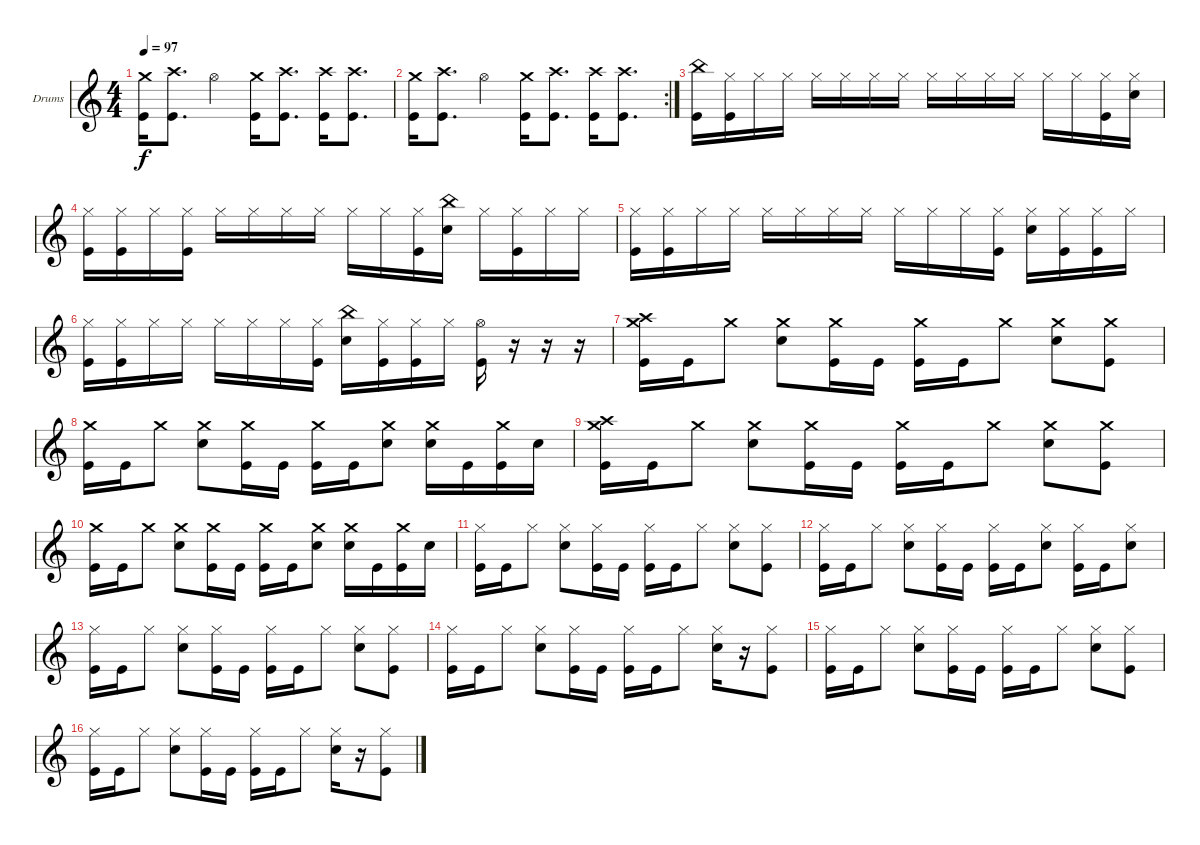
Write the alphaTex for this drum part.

\defaultSystemsLayout 4
\bracketExtendMode groupsimilarinstruments
\firstSystemTrackNameOrientation horizontal
\otherSystemsTrackNameOrientation horizontal
\track ("David Buckner" "Drums") {instrument percussion}
\staff {score}
\articulation defaults
\ts (4 4)
\tempo 97
\clef g2
\ks c
("Kick (hit)" "Crash medium (hit)").16{dy f} ("Kick (hit)" "Crash high (hit)").8{d} "Hi-Hat (open)".4 ("Kick (hit)" "Crash medium (hit)").16 ("Kick (hit)" "Crash high (hit)").8{d} ("Kick (hit)" "Crash high (hit)").16 ("Kick (hit)" "Crash high (hit)").8{d} |
\rc 2
("Kick (hit)" "Crash medium (hit)").16 ("Kick (hit)" "Crash high (hit)").8{d} "Hi-Hat (open)".4 ("Kick (hit)" "Crash medium (hit)").16 ("Kick (hit)" "Crash high (hit)").8{d} ("Kick (hit)" "Crash high (hit)").16 ("Kick (hit)" "Crash high (hit)").8{d} |
("Kick (hit)" "China (hit)").16 ("Hi-Hat (closed)" "Kick (hit)").16 "Hi-Hat (closed)".16 "Hi-Hat (closed)".16 "Hi-Hat (closed)".16 "Hi-Hat (closed)".16 "Hi-Hat (closed)".16 "Hi-Hat (closed)".16 "Hi-Hat (closed)".16 "Hi-Hat (closed)".16 "Hi-Hat (closed)".16 "Hi-Hat (closed)".16 "Hi-Hat (closed)".16 "Hi-Hat (closed)".16 ("Hi-Hat (closed)" "Kick (hit)").16 ("Hi-Hat (closed)" "Snare (hit) 2").16 |
("Hi-Hat (closed)" "Kick (hit)").16 ("Hi-Hat (closed)" "Kick (hit)").16 "Hi-Hat (closed)".16 ("Hi-Hat (closed)" "Kick (hit)").16 "Hi-Hat (closed)".16 "Hi-Hat (closed)".16 "Hi-Hat (closed)".16 "Hi-Hat (closed)".16 "Hi-Hat (closed)".16 "Hi-Hat (closed)".16 ("Hi-Hat (closed)" "Kick (hit)").16 ("Snare (hit) 2" "China (hit)").16 "Hi-Hat (closed)".16 ("Hi-Hat (closed)" "Kick (hit)").16 "Hi-Hat (closed)".16 "Hi-Hat (closed)".16 |
("Kick (hit)" "Hi-Hat (closed)").16 ("Hi-Hat (closed)" "Kick (hit)").16 "Hi-Hat (closed)".16 "Hi-Hat (closed)".16 "Hi-Hat (closed)".16 "Hi-Hat (closed)".16 "Hi-Hat (closed)".16 "Hi-Hat (closed)".16 "Hi-Hat (closed)".16 "Hi-Hat (closed)".16 "Hi-Hat (closed)".16 ("Hi-Hat (closed)" "Kick (hit)").16 ("Hi-Hat (closed)" "Snare (hit) 2").16 ("Hi-Hat (closed)" "Kick (hit)").16 ("Hi-Hat (closed)" "Kick (hit)").16 "Hi-Hat (closed)".16 |
("Hi-Hat (closed)" "Kick (hit)").16 ("Hi-Hat (closed)" "Kick (hit)").16 "Hi-Hat (closed)".16 "Hi-Hat (closed)".16 "Hi-Hat (closed)".16 "Hi-Hat (closed)".16 "Hi-Hat (closed)".16 ("Hi-Hat (closed)" "Kick (hit)").16 ("Snare (hit) 2" "China (hit)").16 ("Hi-Hat (closed)" "Kick (hit)").16 ("Hi-Hat (closed)" "Kick (hit)").16 "Hi-Hat (closed)".16 ("Kick (hit)" "Hi-Hat (open)").16 r.16 r.16 r.16 |
("Kick (hit)" "Crash high (hit)" "Crash medium (hit)").16 "Kick (hit)".16 "Crash medium (hit)".8 ("Snare (hit) 2" "Crash medium (hit)").8 ("Kick (hit)" "Crash medium (hit)").16 "Kick (hit)".16 ("Kick (hit)" "Crash medium (hit)").16 "Kick (hit)".16 "Crash medium (hit)".8 ("Snare (hit) 2" "Crash medium (hit)").8 ("Kick (hit)" "Crash medium (hit)").8 |
("Kick (hit)" "Crash medium (hit)").16 "Kick (hit)".16 "Crash medium (hit)".8 ("Snare (hit) 2" "Crash medium (hit)").8 ("Kick (hit)" "Crash medium (hit)").16 "Kick (hit)".16 ("Kick (hit)" "Crash medium (hit)").16 "Kick (hit)".16 ("Crash medium (hit)" "Snare (hit) 2").8 ("Snare (hit) 2" "Crash medium (hit)").16 "Kick (hit)".16 ("Kick (hit)" "Crash medium (hit)").16 "Snare (hit) 2".16 |
("Kick (hit)" "Crash high (hit)" "Crash medium (hit)").16 "Kick (hit)".16 "Crash medium (hit)".8 ("Snare (hit) 2" "Crash medium (hit)").8 ("Kick (hit)" "Crash medium (hit)").16 "Kick (hit)".16 ("Kick (hit)" "Crash medium (hit)").16 "Kick (hit)".16 "Crash medium (hit)".8 ("Snare (hit) 2" "Crash medium (hit)").8 ("Kick (hit)" "Crash medium (hit)").8 |
("Kick (hit)" "Crash medium (hit)").16 "Kick (hit)".16 "Crash medium (hit)".8 ("Snare (hit) 2" "Crash medium (hit)").8 ("Kick (hit)" "Crash medium (hit)").16 "Kick (hit)".16 ("Kick (hit)" "Crash medium (hit)").16 "Kick (hit)".16 ("Crash medium (hit)" "Snare (hit) 2").8 ("Snare (hit) 2" "Crash medium (hit)").16 "Kick (hit)".16 ("Kick (hit)" "Crash medium (hit)").16 "Snare (hit) 2".16 |
("Kick (hit)" "Hi-Hat (closed)").16 "Kick (hit)".16 "Hi-Hat (closed)".8 ("Snare (hit) 2" "Hi-Hat (closed)").8 ("Kick (hit)" "Hi-Hat (closed)").16 "Kick (hit)".16 ("Kick (hit)" "Hi-Hat (closed)").16 "Kick (hit)".16 "Hi-Hat (closed)".8 ("Snare (hit) 2" "Hi-Hat (closed)").8 ("Kick (hit)" "Hi-Hat (closed)").8 |
("Kick (hit)" "Hi-Hat (closed)").16 "Kick (hit)".16 "Hi-Hat (closed)".8 ("Snare (hit) 2" "Hi-Hat (closed)").8 ("Kick (hit)" "Hi-Hat (closed)").16 "Kick (hit)".16 ("Kick (hit)" "Hi-Hat (closed)").16 "Kick (hit)".16 ("Hi-Hat (closed)" "Snare (hit) 2").8 ("Hi-Hat (closed)" "Kick (hit)").16 "Kick (hit)".16 ("Hi-Hat (closed)" "Snare (hit) 2").8 |
("Kick (hit)" "Hi-Hat (closed)").16 "Kick (hit)".16 "Hi-Hat (closed)".8 ("Snare (hit) 2" "Hi-Hat (closed)").8 ("Kick (hit)" "Hi-Hat (closed)").16 "Kick (hit)".16 ("Kick (hit)" "Hi-Hat (closed)").16 "Kick (hit)".16 "Hi-Hat (closed)".8 ("Snare (hit) 2" "Hi-Hat (closed)").8 ("Kick (hit)" "Hi-Hat (closed)").8 |
("Kick (hit)" "Hi-Hat (closed)").16 "Kick (hit)".16 "Hi-Hat (closed)".8 ("Snare (hit) 2" "Hi-Hat (closed)").8 ("Kick (hit)" "Hi-Hat (closed)").16 "Kick (hit)".16 ("Kick (hit)" "Hi-Hat (closed)").16 "Kick (hit)".16 "Hi-Hat (closed)".8 ("Hi-Hat (closed)" "Snare (hit) 2").16 r.16 ("Hi-Hat (closed)" "Kick (hit)").8 |
("Kick (hit)" "Hi-Hat (closed)").16 "Kick (hit)".16 "Hi-Hat (closed)".8 ("Snare (hit) 2" "Hi-Hat (closed)").8 ("Kick (hit)" "Hi-Hat (closed)").16 "Kick (hit)".16 ("Kick (hit)" "Hi-Hat (closed)").16 "Kick (hit)".16 "Hi-Hat (closed)".8 ("Snare (hit) 2" "Hi-Hat (closed)").8 ("Kick (hit)" "Hi-Hat (closed)").8 |
("Kick (hit)" "Hi-Hat (closed)").16 "Kick (hit)".16 "Hi-Hat (closed)".8 ("Snare (hit) 2" "Hi-Hat (closed)").8 ("Kick (hit)" "Hi-Hat (closed)").16 "Kick (hit)".16 ("Kick (hit)" "Hi-Hat (closed)").16 "Kick (hit)".16 "Hi-Hat (closed)".8 ("Hi-Hat (closed)" "Snare (hit) 2").16 r.16 ("Hi-Hat (closed)" "Kick (hit)").8
